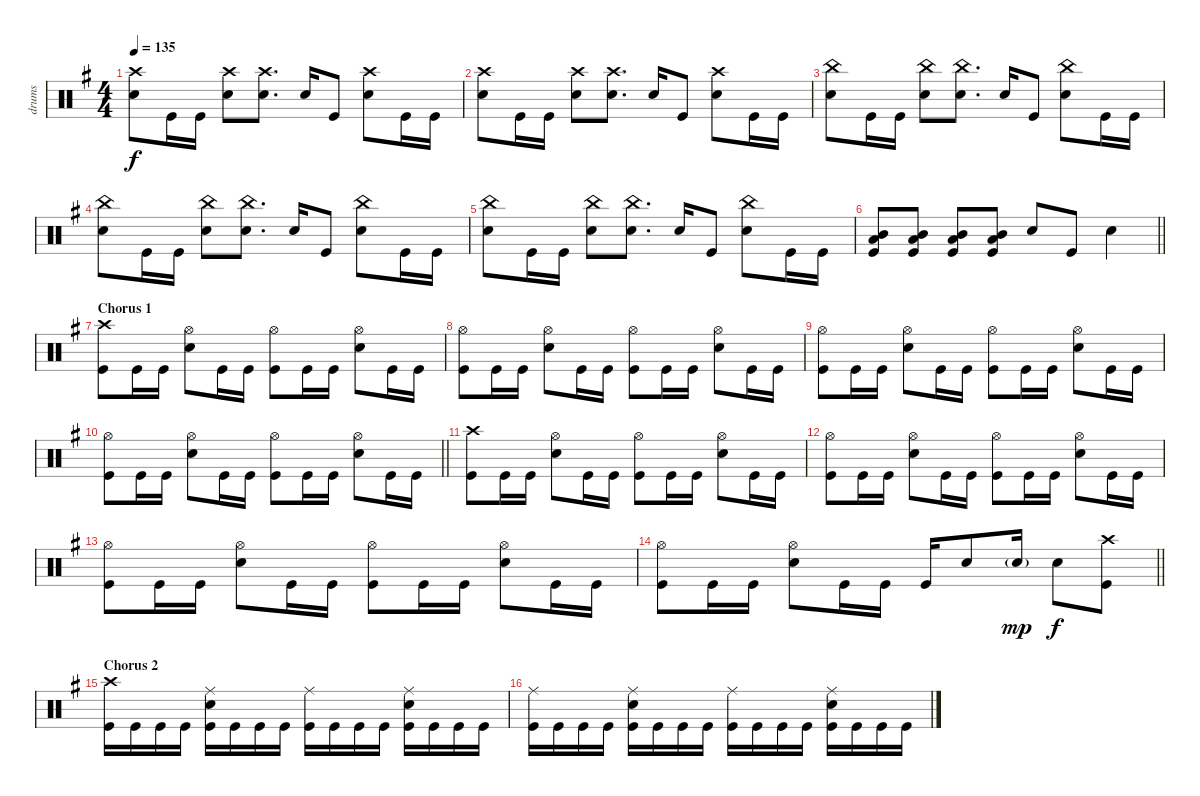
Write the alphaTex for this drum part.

\track ("drums" "drums") {instrument percussion}
\staff {score}
\articulation defaults
\ts (4 4)
\tempo 135
\clef neutral
\ks eminor
("Crash high (hit)" "Snare (hit) 2").8{dy f} "Kick (hit)".16 "Kick (hit)".16 ("Crash high (hit)" "Snare (hit) 2").8 ("Crash high (hit)" "Snare (hit) 2").8{d} "Snare (hit) 2".16 "Kick (hit)".8 ("Crash high (hit)" "Snare (hit) 2").8 "Kick (hit)".16 "Kick (hit)".16 |
("Crash high (hit)" "Snare (hit) 2").8 "Kick (hit)".16 "Kick (hit)".16 ("Crash high (hit)" "Snare (hit) 2").8 ("Crash high (hit)" "Snare (hit) 2").8{d} "Snare (hit) 2".16 "Kick (hit)".8 ("Crash high (hit)" "Snare (hit) 2").8 "Kick (hit)".16 "Kick (hit)".16 |
("China (hit)" "Snare (hit) 2").8 "Kick (hit)".16 "Kick (hit)".16 ("China (hit)" "Snare (hit) 2").8 ("China (hit)" "Snare (hit) 2").8{d} "Snare (hit) 2".16 "Kick (hit)".8 ("China (hit)" "Snare (hit) 2").8 "Kick (hit)".16 "Kick (hit)".16 |
("China (hit)" "Snare (hit) 2").8 "Kick (hit)".16 "Kick (hit)".16 ("China (hit)" "Snare (hit) 2").8 ("China (hit)" "Snare (hit) 2").8{d} "Snare (hit) 2".16 "Kick (hit)".8 ("China (hit)" "Snare (hit) 2").8 "Kick (hit)".16 "Kick (hit)".16 |
("China (hit)" "Snare (hit) 2").8 "Kick (hit)".16 "Kick (hit)".16 ("China (hit)" "Snare (hit) 2").8 ("China (hit)" "Snare (hit) 2").8{d} "Snare (hit) 2".16 "Kick (hit)".8 ("China (hit)" "Snare (hit) 2").8 "Kick (hit)".16 "Kick (hit)".16 |
\barLineRight lightlight
("Mid Tom (hit)" "Low Floor Tom (hit)" "Kick (hit)").8 ("Mid Tom (hit)" "Low Floor Tom (hit)" "Kick (hit)").8 ("Mid Tom (hit)" "Low Floor Tom (hit)" "Kick (hit)").8 ("Mid Tom (hit)" "Low Floor Tom (hit)" "Kick (hit)").8 "Snare (hit) 2".8 "Kick (hit)".8 "Snare (hit) 2".4 |
\section ("" "Chorus 1")
("Crash high (hit)" "Kick (hit)").8 "Kick (hit)".16 "Kick (hit)".16 ("Hi-Hat (open)" "Snare (hit) 2").8 "Kick (hit)".16 "Kick (hit)".16 ("Hi-Hat (open)" "Kick (hit)").8 "Kick (hit)".16 "Kick (hit)".16 ("Hi-Hat (open)" "Snare (hit) 2").8 "Kick (hit)".16 "Kick (hit)".16 |
("Hi-Hat (open)" "Kick (hit)").8 "Kick (hit)".16 "Kick (hit)".16 ("Hi-Hat (open)" "Snare (hit) 2").8 "Kick (hit)".16 "Kick (hit)".16 ("Hi-Hat (open)" "Kick (hit)").8 "Kick (hit)".16 "Kick (hit)".16 ("Hi-Hat (open)" "Snare (hit) 2").8 "Kick (hit)".16 "Kick (hit)".16 |
("Hi-Hat (open)" "Kick (hit)").8 "Kick (hit)".16 "Kick (hit)".16 ("Hi-Hat (open)" "Snare (hit) 2").8 "Kick (hit)".16 "Kick (hit)".16 ("Hi-Hat (open)" "Kick (hit)").8 "Kick (hit)".16 "Kick (hit)".16 ("Hi-Hat (open)" "Snare (hit) 2").8 "Kick (hit)".16 "Kick (hit)".16 |
\barLineRight lightlight
("Hi-Hat (open)" "Kick (hit)").8 "Kick (hit)".16 "Kick (hit)".16 ("Hi-Hat (open)" "Snare (hit) 2").8 "Kick (hit)".16 "Kick (hit)".16 ("Hi-Hat (open)" "Kick (hit)").8 "Kick (hit)".16 "Kick (hit)".16 ("Hi-Hat (open)" "Snare (hit) 2").8 "Kick (hit)".16 "Kick (hit)".16 |
("Crash high (hit)" "Kick (hit)").8 "Kick (hit)".16 "Kick (hit)".16 ("Hi-Hat (open)" "Snare (hit) 2").8 "Kick (hit)".16 "Kick (hit)".16 ("Hi-Hat (open)" "Kick (hit)").8 "Kick (hit)".16 "Kick (hit)".16 ("Hi-Hat (open)" "Snare (hit) 2").8 "Kick (hit)".16 "Kick (hit)".16 |
("Hi-Hat (open)" "Kick (hit)").8 "Kick (hit)".16 "Kick (hit)".16 ("Hi-Hat (open)" "Snare (hit) 2").8 "Kick (hit)".16 "Kick (hit)".16 ("Hi-Hat (open)" "Kick (hit)").8 "Kick (hit)".16 "Kick (hit)".16 ("Hi-Hat (open)" "Snare (hit) 2").8 "Kick (hit)".16 "Kick (hit)".16 |
("Hi-Hat (open)" "Kick (hit)").8 "Kick (hit)".16 "Kick (hit)".16 ("Hi-Hat (open)" "Snare (hit) 2").8 "Kick (hit)".16 "Kick (hit)".16 ("Hi-Hat (open)" "Kick (hit)").8 "Kick (hit)".16 "Kick (hit)".16 ("Hi-Hat (open)" "Snare (hit) 2").8 "Kick (hit)".16 "Kick (hit)".16 |
\barLineRight lightlight
("Hi-Hat (open)" "Kick (hit)").8 "Kick (hit)".16 "Kick (hit)".16 ("Hi-Hat (open)" "Snare (hit) 2").8 "Kick (hit)".16 "Kick (hit)".16 "Kick (hit)".16 "Snare (hit) 2".8 "Snare (hit) 2"{g}.16{dy mp} "Snare (hit) 2".8{dy f} ("Crash high (hit)" "Kick (hit)").8 |
\section ("" "Chorus 2")
("Crash high (hit)" "Kick (hit)").16 "Kick (hit)".16 "Kick (hit)".16 "Kick (hit)".16 ("Ride (middle)" "Snare (hit) 2" "Kick (hit)").16 "Kick (hit)".16 "Kick (hit)".16 "Kick (hit)".16 ("Ride (middle)" "Kick (hit)").16 "Kick (hit)".16 "Kick (hit)".16 "Kick (hit)".16 ("Ride (middle)" "Snare (hit) 2" "Kick (hit)").16 "Kick (hit)".16 "Kick (hit)".16 "Kick (hit)".16 |
("Ride (middle)" "Kick (hit)").16 "Kick (hit)".16 "Kick (hit)".16 "Kick (hit)".16 ("Ride (middle)" "Snare (hit) 2" "Kick (hit)").16 "Kick (hit)".16 "Kick (hit)".16 "Kick (hit)".16 ("Ride (middle)" "Kick (hit)").16 "Kick (hit)".16 "Kick (hit)".16 "Kick (hit)".16 ("Ride (middle)" "Snare (hit) 2" "Kick (hit)").16 "Kick (hit)".16 "Kick (hit)".16 "Kick (hit)".16
